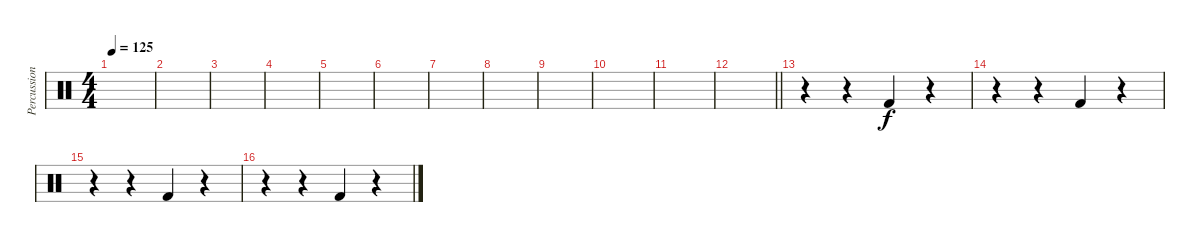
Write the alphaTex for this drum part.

\track ("Percussion" "Percussion") {instrument percussion}
\staff {score}
\articulation defaults
\ts (4 4)
\tempo 125
\clef neutral
\ks c
|
|
|
|
|
|
|
|
|
|
|
\barLineRight lightlight
|
\section ("" "")
r.4 r.4 "Kick (hit) 2".4 r.4 |
r.4 r.4 "Kick (hit) 2".4 r.4 |
r.4 r.4 "Kick (hit) 2".4 r.4 |
r.4 r.4 "Kick (hit) 2".4 r.4
